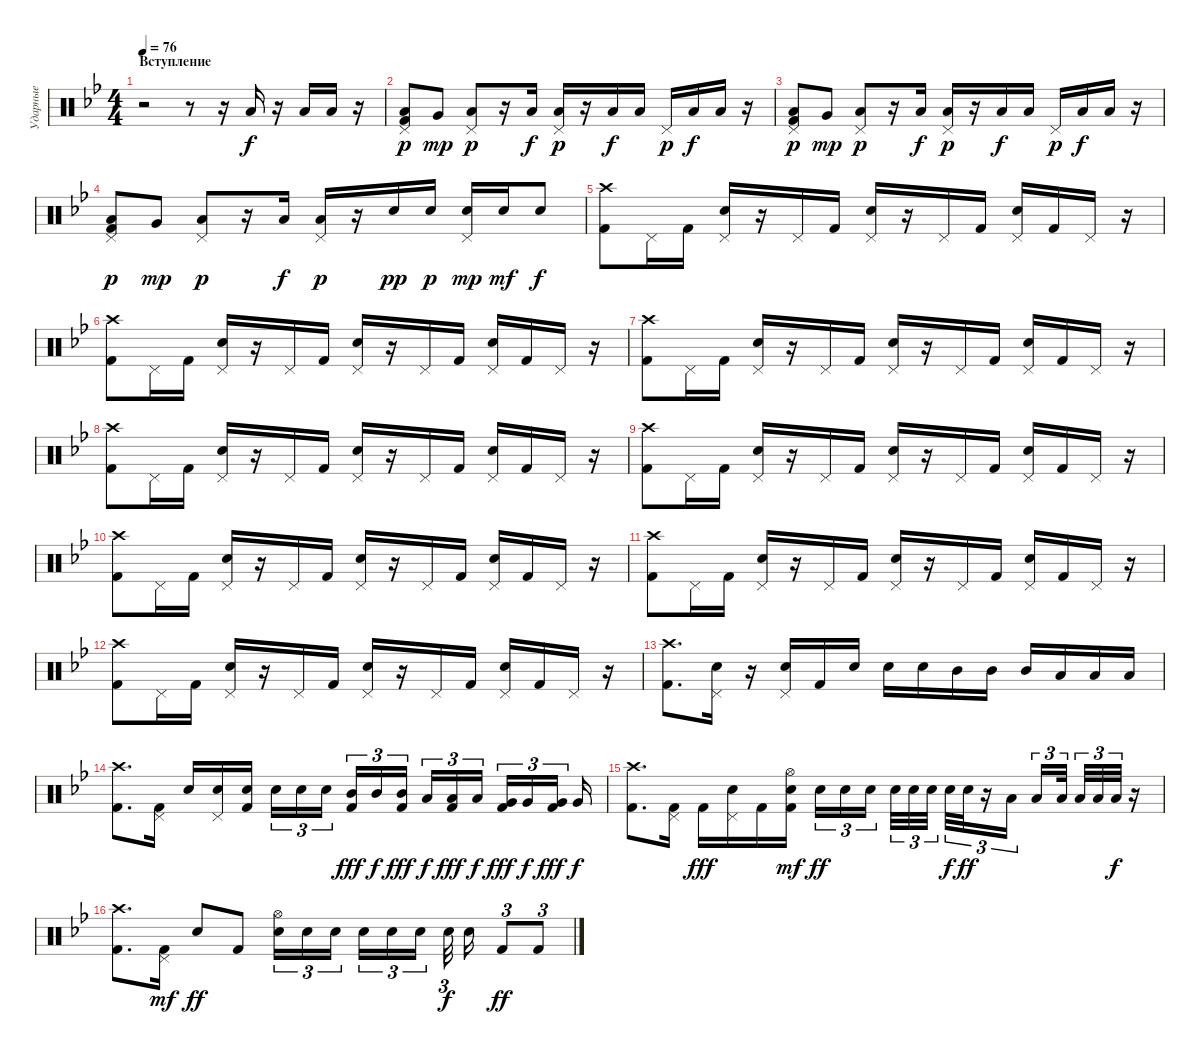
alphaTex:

\track ("Ударные" "Ударные") {instrument percussion}
\staff {score}
\articulation defaults
\ts (4 4)
\section ("" "Вступление")
\tempo 76
\clef neutral
\ks gminor
r.2{dy f} r.8 r.16 "Low Tom (hit)".16 r.16 "Low Tom (hit)".16 "Low Tom (hit)".16 r.16 |
("Pedal Hi-Hat (hit)" "Low Tom (hit)" "Kick (hit) 2").8{dy p} "Very Low Tom (hit)".8{dy mp} ("Pedal Hi-Hat (hit)" "Low Tom (hit)").8{dy p} r.16 "Low Tom (hit)".16{dy f} ("Pedal Hi-Hat (hit)" "Low Tom (hit)").16{dy p} r.16 "Low Tom (hit)".16{dy f} "Low Tom (hit)".16 "Pedal Hi-Hat (hit)".16{dy p} "Low Tom (hit)".16{dy f} "Low Tom (hit)".16 r.16 |
("Pedal Hi-Hat (hit)" "Low Tom (hit)" "Kick (hit) 2").8{dy p} "Very Low Tom (hit)".8{dy mp} ("Pedal Hi-Hat (hit)" "Low Tom (hit)").8{dy p} r.16 "Low Tom (hit)".16{dy f} ("Pedal Hi-Hat (hit)" "Low Tom (hit)").16{dy p} r.16 "Low Tom (hit)".16{dy f} "Low Tom (hit)".16 "Pedal Hi-Hat (hit)".16{dy p} "Low Tom (hit)".16{dy f} "Low Tom (hit)".16 r.16 |
("Pedal Hi-Hat (hit)" "Low Tom (hit)" "Kick (hit) 2").8{dy p} "Very Low Tom (hit)".8{dy mp} ("Pedal Hi-Hat (hit)" "Low Tom (hit)").8{dy p} r.16 "Low Tom (hit)".16{dy f} ("Pedal Hi-Hat (hit)" "Low Tom (hit)").16{dy p} r.16 "Snare (hit) 2".16{dy pp} "Snare (hit) 2".16{dy p} ("Pedal Hi-Hat (hit)" "Snare (hit) 2").16{dy mp} "Snare (hit) 2".16{dy mf} "Snare (hit) 2".8{dy f} |
("Crash high (hit)" "Kick (hit) 2").8 "Pedal Hi-Hat (hit)".16 "Kick (hit) 2".16 ("Pedal Hi-Hat (hit)" "Snare (hit) 2").16 r.16 "Pedal Hi-Hat (hit)".16 "Kick (hit) 2".16 ("Pedal Hi-Hat (hit)" "Snare (hit) 2").16 r.16 "Pedal Hi-Hat (hit)".16 "Kick (hit) 2".16 ("Pedal Hi-Hat (hit)" "Snare (hit) 2").16 "Kick (hit) 2".16 "Pedal Hi-Hat (hit)".16 r.16 |
("Crash high (hit)" "Kick (hit) 2").8 "Pedal Hi-Hat (hit)".16 "Kick (hit) 2".16 ("Pedal Hi-Hat (hit)" "Snare (hit) 2").16 r.16 "Pedal Hi-Hat (hit)".16 "Kick (hit) 2".16 ("Pedal Hi-Hat (hit)" "Snare (hit) 2").16 r.16 "Pedal Hi-Hat (hit)".16 "Kick (hit) 2".16 ("Pedal Hi-Hat (hit)" "Snare (hit) 2").16 "Kick (hit) 2".16 "Pedal Hi-Hat (hit)".16 r.16 |
("Crash high (hit)" "Kick (hit) 2").8 "Pedal Hi-Hat (hit)".16 "Kick (hit) 2".16 ("Pedal Hi-Hat (hit)" "Snare (hit) 2").16 r.16 "Pedal Hi-Hat (hit)".16 "Kick (hit) 2".16 ("Pedal Hi-Hat (hit)" "Snare (hit) 2").16 r.16 "Pedal Hi-Hat (hit)".16 "Kick (hit) 2".16 ("Pedal Hi-Hat (hit)" "Snare (hit) 2").16 "Kick (hit) 2".16 "Pedal Hi-Hat (hit)".16 r.16 |
("Crash high (hit)" "Kick (hit) 2").8 "Pedal Hi-Hat (hit)".16 "Kick (hit) 2".16 ("Pedal Hi-Hat (hit)" "Snare (hit) 2").16 r.16 "Pedal Hi-Hat (hit)".16 "Kick (hit) 2".16 ("Pedal Hi-Hat (hit)" "Snare (hit) 2").16 r.16 "Pedal Hi-Hat (hit)".16 "Kick (hit) 2".16 ("Pedal Hi-Hat (hit)" "Snare (hit) 2").16 "Kick (hit) 2".16 "Pedal Hi-Hat (hit)".16 r.16 |
("Crash high (hit)" "Kick (hit) 2").8 "Pedal Hi-Hat (hit)".16 "Kick (hit) 2".16 ("Pedal Hi-Hat (hit)" "Snare (hit) 2").16 r.16 "Pedal Hi-Hat (hit)".16 "Kick (hit) 2".16 ("Pedal Hi-Hat (hit)" "Snare (hit) 2").16 r.16 "Pedal Hi-Hat (hit)".16 "Kick (hit) 2".16 ("Pedal Hi-Hat (hit)" "Snare (hit) 2").16 "Kick (hit) 2".16 "Pedal Hi-Hat (hit)".16 r.16 |
("Crash high (hit)" "Kick (hit) 2").8 "Pedal Hi-Hat (hit)".16 "Kick (hit) 2".16 ("Pedal Hi-Hat (hit)" "Snare (hit) 2").16 r.16 "Pedal Hi-Hat (hit)".16 "Kick (hit) 2".16 ("Pedal Hi-Hat (hit)" "Snare (hit) 2").16 r.16 "Pedal Hi-Hat (hit)".16 "Kick (hit) 2".16 ("Pedal Hi-Hat (hit)" "Snare (hit) 2").16 "Kick (hit) 2".16 "Pedal Hi-Hat (hit)".16 r.16 |
("Crash high (hit)" "Kick (hit) 2").8 "Pedal Hi-Hat (hit)".16 "Kick (hit) 2".16 ("Pedal Hi-Hat (hit)" "Snare (hit) 2").16 r.16 "Pedal Hi-Hat (hit)".16 "Kick (hit) 2".16 ("Pedal Hi-Hat (hit)" "Snare (hit) 2").16 r.16 "Pedal Hi-Hat (hit)".16 "Kick (hit) 2".16 ("Pedal Hi-Hat (hit)" "Snare (hit) 2").16 "Kick (hit) 2".16 "Pedal Hi-Hat (hit)".16 r.16 |
("Crash high (hit)" "Kick (hit) 2").8 "Pedal Hi-Hat (hit)".16 "Kick (hit) 2".16 ("Pedal Hi-Hat (hit)" "Snare (hit) 2").16 r.16 "Pedal Hi-Hat (hit)".16 "Kick (hit) 2".16 ("Pedal Hi-Hat (hit)" "Snare (hit) 2").16 r.16 "Pedal Hi-Hat (hit)".16 "Kick (hit) 2".16 ("Pedal Hi-Hat (hit)" "Snare (hit) 2").16 "Kick (hit) 2".16 "Pedal Hi-Hat (hit)".16 r.16 |
("Crash high (hit)" "Kick (hit) 2").8{d} ("Pedal Hi-Hat (hit)" "Snare (hit) 2").16 r.16 ("Pedal Hi-Hat (hit)" "Snare (hit) 2").16 "Kick (hit) 2".16 "Snare (hit) 2".16 "Snare (hit) 2".16 "Snare (hit) 2".16 "Mid Tom (hit)".16 "Mid Tom (hit)".16 "Mid Tom (hit)".16 "Low Tom (hit)".16 "Low Tom (hit)".16 "Low Tom (hit)".16 |
("Crash high (hit)" "Kick (hit) 2").8{d} ("Pedal Hi-Hat (hit)" "Kick (hit) 2").16 "Snare (hit) 2".16 ("Pedal Hi-Hat (hit)" "Snare (hit) 2").16 ("Snare (hit) 2" "Kick (hit) 2").16{beam splitsecondary} "Snare (hit) 2".16{tu (3 2)} "Snare (hit) 2".16{tu (3 2)} "Snare (hit) 2".16{tu (3 2) beam splitsecondary} ("Mid Tom (hit)" "Kick (hit) 2").16{tu (3 2) dy fff} "Mid Tom (hit)".16{tu (3 2) dy f} ("Mid Tom (hit)" "Kick (hit) 2").16{tu (3 2) dy fff beam splitsecondary} "Low Tom (hit)".16{tu (3 2) dy f} ("Low Tom (hit)" "Kick (hit) 2").16{tu (3 2) dy fff} "Low Tom (hit)".16{tu (3 2) dy f beam splitsecondary} ("Very Low Tom (hit)" "Kick (hit) 2").16{tu (3 2) dy fff} "Very Low Tom (hit)".16{tu (3 2) dy f} ("Very Low Tom (hit)" "Kick (hit) 2").16{tu (3 2) dy fff beam splitsecondary} "Very Low Tom (hit)".16{dy f} |
("Crash high (hit)" "Kick (hit) 2").8{d} ("Pedal Hi-Hat (hit)" "Kick (hit) 2").16 "Kick (hit) 2".16{dy fff} ("Pedal Hi-Hat (hit)" "Snare (hit) 2").16 "Kick (hit) 2".16 ("Hi-Hat (open)" "Snare (hit) 2" "Kick (hit) 2").16{dy mf} "Snare (hit) 2".16{tu (3 2) dy ff} "Snare (hit) 2".16{tu (3 2)} "Snare (hit) 2".16{tu (3 2) beam splitsecondary} "Snare (hit) 2".32{tu (3 2)} "Snare (hit) 2".32{tu (3 2)} "Snare (hit) 2".32{tu (3 2) beam splitsecondary} "Snare (hit) 2".32{tu (3 2) dy f} "Snare (hit) 2".32{tu (3 2) dy ff} r.16{tu (3 2)} "Low Tom (hit)".16{tu (3 2) beam splitsecondary} "Low Tom (hit)".16{tu (3 2)} "Low Tom (hit)".32{tu (3 2) beam splitsecondary} "Low Tom (hit)".32{tu (3 2)} "Low Tom (hit)".32{tu (3 2)} "Low Tom (hit)".32{tu (3 2) dy f} r.16 |
("Crash high (hit)" "Kick (hit) 2").8{d} ("Pedal Hi-Hat (hit)" "Kick (hit) 2").16{dy mf} "Snare (hit) 2".8{dy ff} "Kick (hit) 2".8 ("Hi-Hat (open)" "Snare (hit) 2").16{tu (3 2)} "Snare (hit) 2".16{tu (3 2)} "Snare (hit) 2".16{tu (3 2) beam splitsecondary} "Snare (hit) 2".16{tu (3 2)} "Snare (hit) 2".16{tu (3 2)} "Snare (hit) 2".16{tu (3 2)} "Snare (hit) 2".32{tu (3 2) dy f beam splitsecondary} "Snare (hit) 2".16 "Kick (hit) 2".8{tu (3 2) dy ff} "Kick (hit) 2".8{tu (3 2)}
